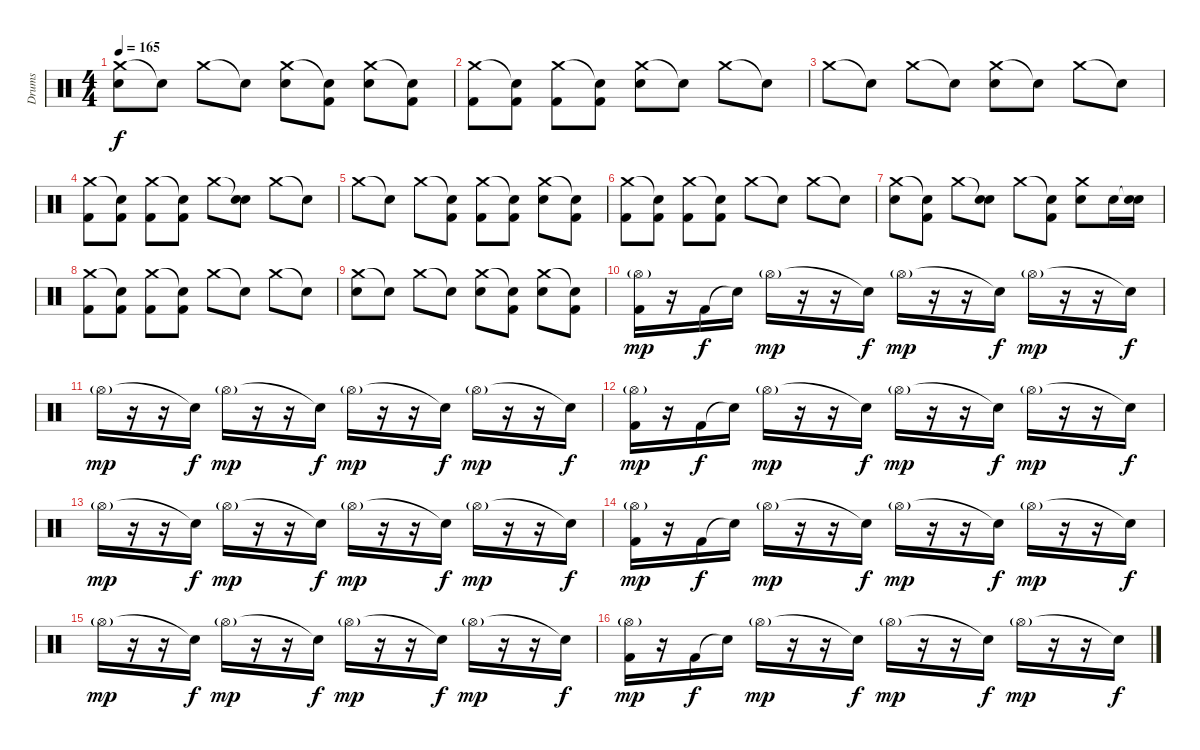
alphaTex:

\track ("Drums" "Drums") {instrument percussion}
\staff {score}
\articulation defaults
\ts (4 4)
\tempo 165
\clef neutral
\ks c
("Crash medium (hit)" "Electric Snare (hit)").8{dy f} "Snare (hit)"{t}.8 "Crash medium (hit)".8 "Snare (hit)"{t}.8 ("Crash medium (hit)" "Electric Snare (hit)").8 ("Snare (hit)"{t} "Kick (hit) 2").8 ("Crash medium (hit)" "Electric Snare (hit)").8 ("Snare (hit)"{t} "Kick (hit) 2").8 |
("Crash medium (hit)" "Kick (hit) 2").8 ("Snare (hit)"{t} "Kick (hit) 2").8 ("Crash medium (hit)" "Kick (hit) 2").8 ("Snare (hit)"{t} "Kick (hit) 2").8 ("Crash medium (hit)" "Electric Snare (hit)").8 "Snare (hit)"{t}.8 "Crash medium (hit)".8 "Snare (hit)"{t}.8 |
"Crash medium (hit)".8 "Snare (hit)"{t}.8 "Crash medium (hit)".8 "Snare (hit)"{t}.8 ("Crash medium (hit)" "Electric Snare (hit)").8 "Snare (hit)"{t}.8 "Crash medium (hit)".8 "Snare (hit)"{t}.8 |
("Crash medium (hit)" "Kick (hit) 2").8 ("Snare (hit)"{t} "Kick (hit) 2").8 ("Crash medium (hit)" "Kick (hit) 2").8 ("Snare (hit)"{t} "Kick (hit) 2").8 "Crash medium (hit)".8 ("Snare (hit)"{t} "Electric Snare (hit)").8 "Crash medium (hit)".8 "Snare (hit)"{t}.8 |
"Crash medium (hit)".8 "Snare (hit)"{t}.8 "Crash medium (hit)".8 ("Snare (hit)"{t} "Kick (hit) 2").8 ("Crash medium (hit)" "Kick (hit) 2").8 ("Snare (hit)"{t} "Kick (hit) 2").8 ("Crash medium (hit)" "Electric Snare (hit)").8 ("Snare (hit)"{t} "Kick (hit) 2").8 |
("Crash medium (hit)" "Kick (hit) 2").8 ("Snare (hit)"{t} "Kick (hit) 2").8 ("Crash medium (hit)" "Kick (hit) 2").8 ("Snare (hit)"{t} "Kick (hit) 2").8 "Crash medium (hit)".8 "Snare (hit)"{t}.8 "Crash medium (hit)".8 "Snare (hit)"{t}.8 |
("Crash medium (hit)" "Electric Snare (hit)").8 ("Snare (hit)"{t} "Kick (hit) 2").8 "Crash medium (hit)".8 ("Snare (hit)"{t} "Electric Snare (hit)").8 "Crash medium (hit)".8 ("Snare (hit)"{t} "Kick (hit) 2").8 ("Crash medium (hit)" "Electric Snare (hit)").8 "Electric Snare (hit)".16 ("Snare (hit)"{t} "Electric Snare (hit)").16 |
("Crash medium (hit)" "Kick (hit) 2").8 ("Snare (hit)"{t} "Kick (hit) 2").8 ("Crash medium (hit)" "Kick (hit) 2").8 ("Snare (hit)"{t} "Kick (hit) 2").8 "Crash medium (hit)".8 "Snare (hit)"{t}.8 "Crash medium (hit)".8 "Snare (hit)"{t}.8 |
("Crash medium (hit)" "Electric Snare (hit)").8 "Snare (hit)"{t}.8 "Crash medium (hit)".8 "Snare (hit)"{t}.8 ("Crash medium (hit)" "Electric Snare (hit)").8 ("Snare (hit)"{t} "Kick (hit) 2").8 ("Crash medium (hit)" "Electric Snare (hit)").8 ("Snare (hit)"{t} "Kick (hit) 2").8 |
("Hi-Hat (open)"{g} "Kick (hit) 2").16{dy mp} r.16 "Kick (hit) 2".16{dy f} "Snare (hit)"{t}.16 "Hi-Hat (open)"{g}.16{dy mp} r.16 r.16 "Snare (hit)"{t}.16{dy f} "Hi-Hat (open)"{g}.16{dy mp} r.16 r.16 "Snare (hit)"{t}.16{dy f} "Hi-Hat (open)"{g}.16{dy mp} r.16 r.16 "Snare (hit)"{t}.16{dy f} |
"Hi-Hat (open)"{g}.16{dy mp} r.16 r.16 "Snare (hit)"{t}.16{dy f} "Hi-Hat (open)"{g}.16{dy mp} r.16 r.16 "Snare (hit)"{t}.16{dy f} "Hi-Hat (open)"{g}.16{dy mp} r.16 r.16 "Snare (hit)"{t}.16{dy f} "Hi-Hat (open)"{g}.16{dy mp} r.16 r.16 "Snare (hit)"{t}.16{dy f} |
("Hi-Hat (open)"{g} "Kick (hit) 2").16{dy mp} r.16 "Kick (hit) 2".16{dy f} "Snare (hit)"{t}.16 "Hi-Hat (open)"{g}.16{dy mp} r.16 r.16 "Snare (hit)"{t}.16{dy f} "Hi-Hat (open)"{g}.16{dy mp} r.16 r.16 "Snare (hit)"{t}.16{dy f} "Hi-Hat (open)"{g}.16{dy mp} r.16 r.16 "Snare (hit)"{t}.16{dy f} |
"Hi-Hat (open)"{g}.16{dy mp} r.16 r.16 "Snare (hit)"{t}.16{dy f} "Hi-Hat (open)"{g}.16{dy mp} r.16 r.16 "Snare (hit)"{t}.16{dy f} "Hi-Hat (open)"{g}.16{dy mp} r.16 r.16 "Snare (hit)"{t}.16{dy f} "Hi-Hat (open)"{g}.16{dy mp} r.16 r.16 "Snare (hit)"{t}.16{dy f} |
("Hi-Hat (open)"{g} "Kick (hit) 2").16{dy mp} r.16 "Kick (hit) 2".16{dy f} "Snare (hit)"{t}.16 "Hi-Hat (open)"{g}.16{dy mp} r.16 r.16 "Snare (hit)"{t}.16{dy f} "Hi-Hat (open)"{g}.16{dy mp} r.16 r.16 "Snare (hit)"{t}.16{dy f} "Hi-Hat (open)"{g}.16{dy mp} r.16 r.16 "Snare (hit)"{t}.16{dy f} |
"Hi-Hat (open)"{g}.16{dy mp} r.16 r.16 "Snare (hit)"{t}.16{dy f} "Hi-Hat (open)"{g}.16{dy mp} r.16 r.16 "Snare (hit)"{t}.16{dy f} "Hi-Hat (open)"{g}.16{dy mp} r.16 r.16 "Snare (hit)"{t}.16{dy f} "Hi-Hat (open)"{g}.16{dy mp} r.16 r.16 "Snare (hit)"{t}.16{dy f} |
("Hi-Hat (open)"{g} "Kick (hit) 2").16{dy mp} r.16 "Kick (hit) 2".16{dy f} "Snare (hit)"{t}.16 "Hi-Hat (open)"{g}.16{dy mp} r.16 r.16 "Snare (hit)"{t}.16{dy f} "Hi-Hat (open)"{g}.16{dy mp} r.16 r.16 "Snare (hit)"{t}.16{dy f} "Hi-Hat (open)"{g}.16{dy mp} r.16 r.16 "Snare (hit)"{t}.16{dy f}
